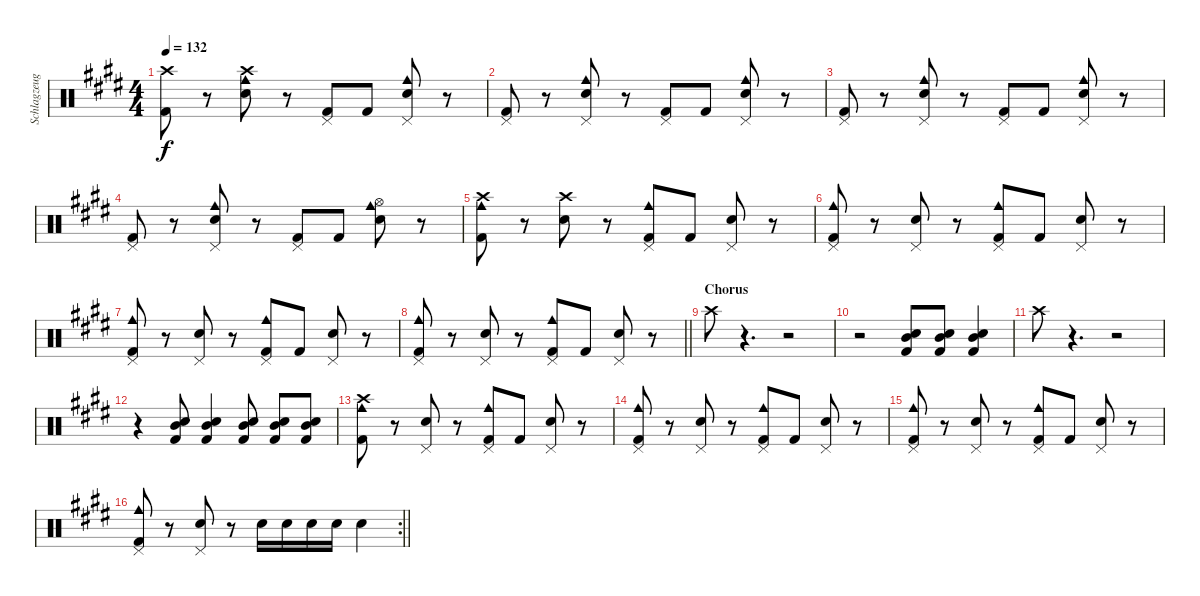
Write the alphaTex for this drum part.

\track ("Schlagzeug" "Schlagzeug") {instrument percussion}
\staff {score}
\articulation defaults
\ts (4 4)
\tempo 132
\clef neutral
\ks e
("Crash high (hit)" "Kick (hit) 2").8{dy f} r.8 ("Crash high (hit)" "Snare (hit) 2" "Cowbell medium (hit)").8 r.8 ("Pedal Hi-Hat (hit)" "Kick (hit) 2").8 "Kick (hit) 2".8 ("Pedal Hi-Hat (hit)" "Snare (hit) 2" "Cowbell medium (hit)").8 r.8 |
("Pedal Hi-Hat (hit)" "Kick (hit) 2").8 r.8 ("Pedal Hi-Hat (hit)" "Snare (hit) 2" "Cowbell medium (hit)").8 r.8 ("Pedal Hi-Hat (hit)" "Kick (hit) 2").8 "Kick (hit) 2".8 ("Pedal Hi-Hat (hit)" "Snare (hit) 2" "Cowbell medium (hit)").8 r.8 |
("Pedal Hi-Hat (hit)" "Kick (hit) 2").8 r.8 ("Pedal Hi-Hat (hit)" "Snare (hit) 2" "Cowbell medium (hit)").8 r.8 ("Pedal Hi-Hat (hit)" "Kick (hit) 2").8 "Kick (hit) 2".8 ("Pedal Hi-Hat (hit)" "Snare (hit) 2" "Cowbell medium (hit)").8 r.8 |
("Pedal Hi-Hat (hit)" "Kick (hit) 2").8 r.8 ("Pedal Hi-Hat (hit)" "Snare (hit) 2" "Cowbell medium (hit)").8 r.8 ("Pedal Hi-Hat (hit)" "Kick (hit) 2").8 "Kick (hit) 2".8 ("Hi-Hat (open)" "Snare (hit) 2" "Cowbell medium (hit)").8 r.8 |
("Crash high (hit)" "Kick (hit) 2" "Cowbell medium (hit)").8 r.8 ("Crash high (hit)" "Snare (hit) 2").8 r.8 ("Pedal Hi-Hat (hit)" "Kick (hit) 2" "Cowbell medium (hit)").8 "Kick (hit) 2".8 ("Pedal Hi-Hat (hit)" "Snare (hit) 2").8 r.8 |
("Pedal Hi-Hat (hit)" "Kick (hit) 2" "Cowbell medium (hit)").8 r.8 ("Pedal Hi-Hat (hit)" "Snare (hit) 2").8 r.8 ("Pedal Hi-Hat (hit)" "Kick (hit) 2" "Cowbell medium (hit)").8 "Kick (hit) 2".8 ("Pedal Hi-Hat (hit)" "Snare (hit) 2").8 r.8 |
("Pedal Hi-Hat (hit)" "Kick (hit) 2" "Cowbell medium (hit)").8 r.8 ("Pedal Hi-Hat (hit)" "Snare (hit) 2").8 r.8 ("Pedal Hi-Hat (hit)" "Kick (hit) 2" "Cowbell medium (hit)").8 "Kick (hit) 2".8 ("Pedal Hi-Hat (hit)" "Snare (hit) 2").8 r.8 |
\barLineRight lightlight
("Pedal Hi-Hat (hit)" "Kick (hit) 2" "Cowbell medium (hit)").8 r.8 ("Pedal Hi-Hat (hit)" "Snare (hit) 2").8 r.8 ("Pedal Hi-Hat (hit)" "Kick (hit) 2" "Cowbell medium (hit)").8 "Kick (hit) 2".8 ("Pedal Hi-Hat (hit)" "Snare (hit) 2").8 r.8 |
\section ("" "Chorus")
"Crash high (hit)".8 r.4{d} r.2 |
r.2 ("Kick (hit) 2" "Snare (hit) 2" "Mid Tom (hit)").8 ("Kick (hit) 2" "Snare (hit) 2" "Mid Tom (hit)").8 ("Kick (hit) 2" "Snare (hit) 2" "Mid Tom (hit)").4 |
"Crash high (hit)".8 r.4{d} r.2 |
r.4 ("Kick (hit) 2" "Snare (hit) 2" "Mid Tom (hit)").8 ("Kick (hit) 2" "Snare (hit) 2" "Mid Tom (hit)").4 ("Kick (hit) 2" "Snare (hit) 2" "Mid Tom (hit)").8 ("Kick (hit) 2" "Snare (hit) 2" "Mid Tom (hit)").8 ("Kick (hit) 2" "Snare (hit) 2" "Mid Tom (hit)").8 |
("Crash high (hit)" "Kick (hit) 2" "Cowbell medium (hit)").8 r.8 ("Pedal Hi-Hat (hit)" "Snare (hit) 2").8 r.8 ("Pedal Hi-Hat (hit)" "Kick (hit) 2" "Cowbell medium (hit)").8 "Kick (hit) 2".8 ("Pedal Hi-Hat (hit)" "Snare (hit) 2").8 r.8 |
("Pedal Hi-Hat (hit)" "Kick (hit) 2" "Cowbell medium (hit)").8 r.8 ("Pedal Hi-Hat (hit)" "Snare (hit) 2").8 r.8 ("Pedal Hi-Hat (hit)" "Kick (hit) 2" "Cowbell medium (hit)").8 "Kick (hit) 2".8 ("Pedal Hi-Hat (hit)" "Snare (hit) 2").8 r.8 |
("Pedal Hi-Hat (hit)" "Kick (hit) 2" "Cowbell medium (hit)").8 r.8 ("Pedal Hi-Hat (hit)" "Snare (hit) 2").8 r.8 ("Pedal Hi-Hat (hit)" "Kick (hit) 2" "Cowbell medium (hit)").8 "Kick (hit) 2".8 ("Pedal Hi-Hat (hit)" "Snare (hit) 2").8 r.8 |
\rc 2
\barLineRight lightlight
("Pedal Hi-Hat (hit)" "Kick (hit) 2" "Cowbell medium (hit)").8 r.8 ("Pedal Hi-Hat (hit)" "Snare (hit) 2").8 r.8 "Snare (hit) 2".16 "Snare (hit) 2".16 "Snare (hit) 2".16 "Snare (hit) 2".16 "Snare (hit) 2".4
